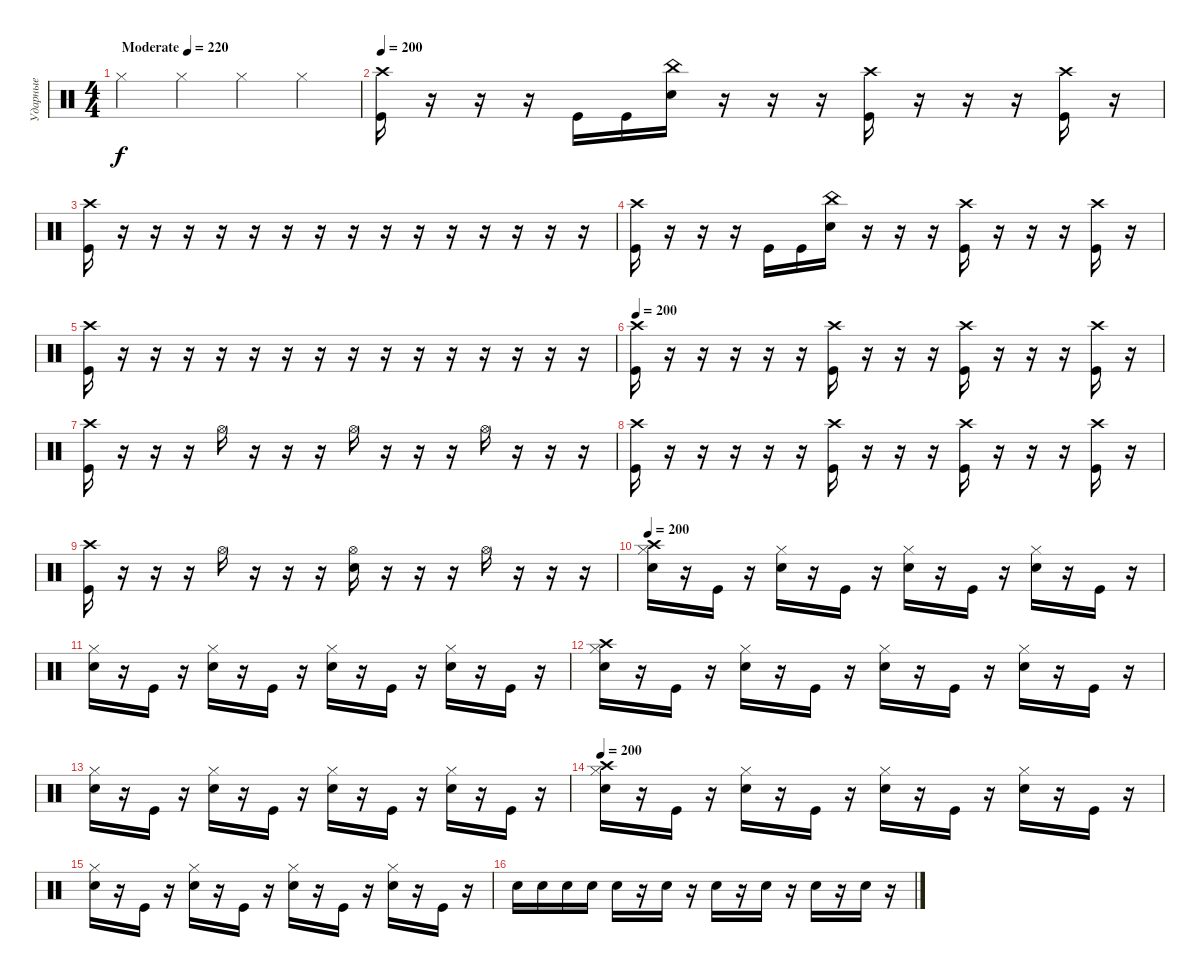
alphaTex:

\track ("Ударные" "Ударные") {instrument percussion}
\staff {score}
\articulation defaults
\ts (4 4)
\tempo (220 "Moderate")
\clef neutral
\ks c "Hi-Hat (closed)".4{dy f} "Hi-Hat (closed)".4 "Hi-Hat (closed)".4 "Hi-Hat (closed)".4
|
\tempo 200
("Crash high (hit)" "Kick (hit)").16 r.16 r.16 r.16 "Kick (hit)".16 "Kick (hit)".16 ("China (hit)" "Electric Snare (hit)").16 r.16 r.16 r.16 ("Crash high (hit)" "Kick (hit)").16 r.16 r.16 r.16 ("Crash high (hit)" "Kick (hit)").16 r.16 |
("Crash high (hit)" "Kick (hit)").16 r.16 r.16 r.16 r.16 r.16 r.16 r.16 r.16 r.16 r.16 r.16 r.16 r.16 r.16 r.16 |
("Crash high (hit)" "Kick (hit)").16 r.16 r.16 r.16 "Kick (hit)".16 "Kick (hit)".16 ("China (hit)" "Electric Snare (hit)").16 r.16 r.16 r.16 ("Crash high (hit)" "Kick (hit)").16 r.16 r.16 r.16 ("Crash high (hit)" "Kick (hit)").16 r.16 |
("Kick (hit)" "Crash high (hit)").16 r.16 r.16 r.16 r.16 r.16 r.16 r.16 r.16 r.16 r.16 r.16 r.16 r.16 r.16 r.16 |
\tempo 200
("Crash high (hit)" "Kick (hit)").16 r.16 r.16 r.16 r.16 r.16 ("Crash high (hit)" "Kick (hit)").16 r.16 r.16 r.16 ("Crash high (hit)" "Kick (hit)").16 r.16 r.16 r.16 ("Crash high (hit)" "Kick (hit)").16 r.16 |
("Kick (hit)" "Crash high (hit)").16 r.16 r.16 r.16 "Hi-Hat (open)".16 r.16 r.16 r.16 "Hi-Hat (open)".16 r.16 r.16 r.16 "Hi-Hat (open)".16 r.16 r.16 r.16 |
("Crash high (hit)" "Kick (hit)").16 r.16 r.16 r.16 r.16 r.16 ("Crash high (hit)" "Kick (hit)").16 r.16 r.16 r.16 ("Crash high (hit)" "Kick (hit)").16 r.16 r.16 r.16 ("Crash high (hit)" "Kick (hit)").16 r.16 |
("Kick (hit)" "Crash high (hit)").16 r.16 r.16 r.16 "Hi-Hat (open)".16 r.16 r.16 r.16 ("Hi-Hat (open)" "Electric Snare (hit)").16 r.16 r.16 r.16 "Hi-Hat (open)".16 r.16 r.16 r.16 |
\tempo 200
("Hi-Hat (closed)" "Electric Snare (hit)" "Crash high (hit)").16 r.16 "Kick (hit)".16 r.16 ("Hi-Hat (closed)" "Electric Snare (hit)").16 r.16 "Kick (hit)".16 r.16 ("Hi-Hat (closed)" "Electric Snare (hit)").16 r.16 "Kick (hit)".16 r.16 ("Hi-Hat (closed)" "Electric Snare (hit)").16 r.16 "Kick (hit)".16 r.16 |
("Hi-Hat (closed)" "Electric Snare (hit)").16 r.16 "Kick (hit)".16 r.16 ("Hi-Hat (closed)" "Electric Snare (hit)").16 r.16 "Kick (hit)".16 r.16 ("Hi-Hat (closed)" "Electric Snare (hit)").16 r.16 "Kick (hit)".16 r.16 ("Hi-Hat (closed)" "Electric Snare (hit)").16 r.16 "Kick (hit)".16 r.16 |
("Hi-Hat (closed)" "Electric Snare (hit)" "Crash high (hit)").16 r.16 "Kick (hit)".16 r.16 ("Hi-Hat (closed)" "Electric Snare (hit)").16 r.16 "Kick (hit)".16 r.16 ("Hi-Hat (closed)" "Electric Snare (hit)").16 r.16 "Kick (hit)".16 r.16 ("Hi-Hat (closed)" "Electric Snare (hit)").16 r.16 "Kick (hit)".16 r.16 |
("Hi-Hat (closed)" "Electric Snare (hit)").16 r.16 "Kick (hit)".16 r.16 ("Hi-Hat (closed)" "Electric Snare (hit)").16 r.16 "Kick (hit)".16 r.16 ("Hi-Hat (closed)" "Electric Snare (hit)").16 r.16 "Kick (hit)".16 r.16 ("Hi-Hat (closed)" "Electric Snare (hit)").16 r.16 "Kick (hit)".16 r.16 |
\tempo 200
("Hi-Hat (closed)" "Electric Snare (hit)" "Crash high (hit)").16 r.16 "Kick (hit)".16 r.16 ("Hi-Hat (closed)" "Electric Snare (hit)").16 r.16 "Kick (hit)".16 r.16 ("Hi-Hat (closed)" "Electric Snare (hit)").16 r.16 "Kick (hit)".16 r.16 ("Hi-Hat (closed)" "Electric Snare (hit)").16 r.16 "Kick (hit)".16 r.16 |
("Hi-Hat (closed)" "Electric Snare (hit)").16 r.16 "Kick (hit)".16 r.16 ("Hi-Hat (closed)" "Electric Snare (hit)").16 r.16 "Kick (hit)".16 r.16 ("Hi-Hat (closed)" "Electric Snare (hit)").16 r.16 "Kick (hit)".16 r.16 ("Hi-Hat (closed)" "Electric Snare (hit)").16 r.16 "Kick (hit)".16 r.16 |
"Electric Snare (hit)".16 "Electric Snare (hit)".16 "Electric Snare (hit)".16 "Electric Snare (hit)".16 "Electric Snare (hit)".16 r.16 "Electric Snare (hit)".16 r.16 "Electric Snare (hit)".16 r.16 "Electric Snare (hit)".16 r.16 "Electric Snare (hit)".16 r.16 "Electric Snare (hit)".16 r.16
